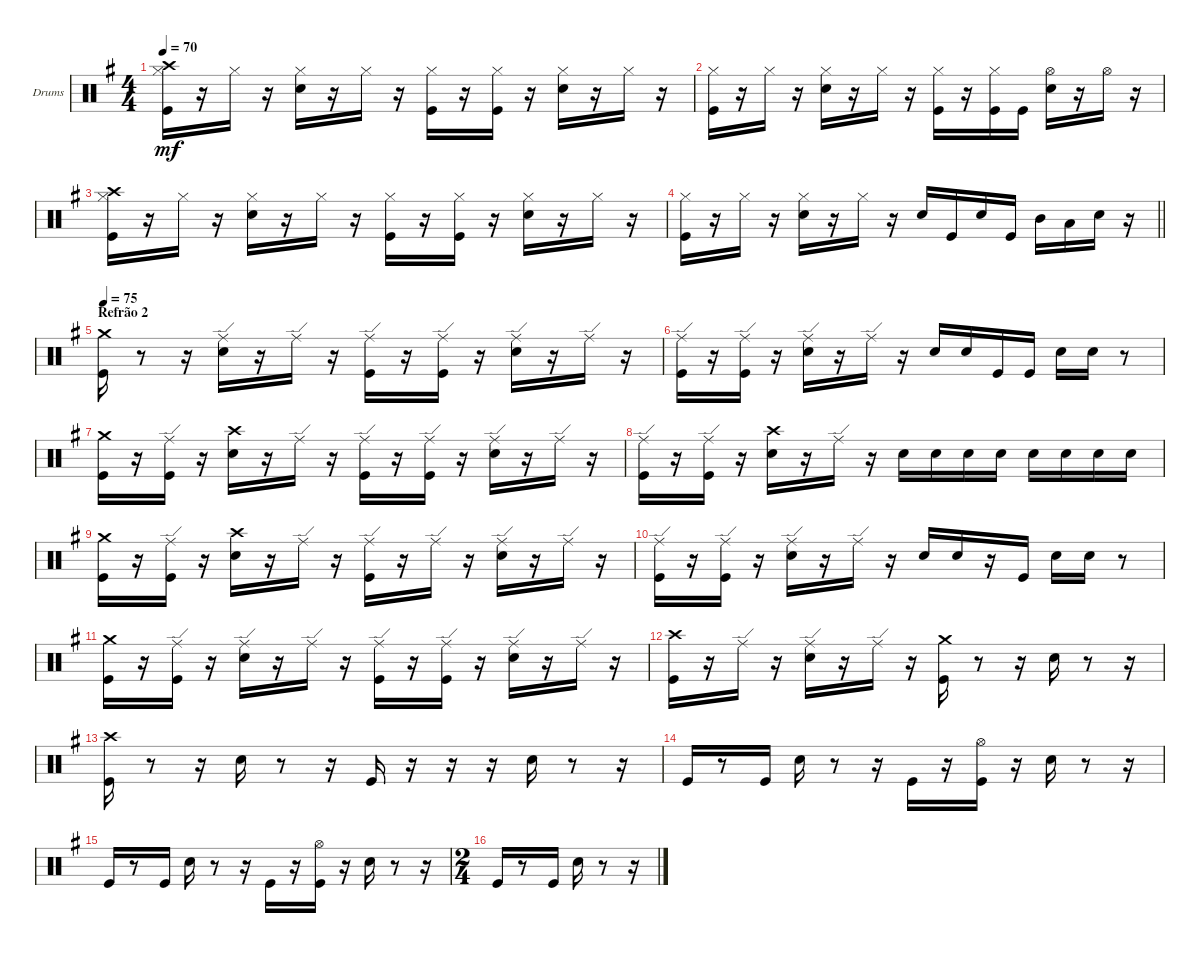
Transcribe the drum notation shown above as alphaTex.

\bracketExtendMode groupsimilarinstruments
\firstSystemTrackNameOrientation horizontal
\otherSystemsTrackNameOrientation horizontal
\track ("Drumkit" "Drums") {instrument percussion}
\staff {score}
\articulation defaults
\ts (4 4)
\tempo 70
\clef neutral
\ks eminor
("Kick (hit)" "Hi-Hat (closed)" "Crash high (hit)").16{dy mf} r.16 "Hi-Hat (closed)".16 r.16 ("Snare (hit) 2" "Hi-Hat (closed)").16 r.16 "Hi-Hat (closed)".16 r.16 ("Kick (hit)" "Hi-Hat (closed)").16 r.16 ("Kick (hit)" "Hi-Hat (closed)").16 r.16 ("Snare (hit) 2" "Hi-Hat (closed)").16 r.16 "Hi-Hat (closed)".16 r.16 |
("Kick (hit)" "Hi-Hat (closed)").16 r.16 "Hi-Hat (closed)".16 r.16 ("Snare (hit) 2" "Hi-Hat (closed)").16 r.16 "Hi-Hat (closed)".16 r.16 ("Kick (hit)" "Hi-Hat (closed)").16 r.16 ("Kick (hit)" "Hi-Hat (closed)").16 "Kick (hit)".16 ("Snare (hit) 2" "Hi-Hat (open)").16 r.16 "Hi-Hat (open)".16 r.16 |
("Kick (hit)" "Hi-Hat (closed)" "Crash high (hit)").16 r.16 "Hi-Hat (closed)".16 r.16 ("Snare (hit) 2" "Hi-Hat (closed)").16 r.16 "Hi-Hat (closed)".16 r.16 ("Kick (hit)" "Hi-Hat (closed)").16 r.16 ("Kick (hit)" "Hi-Hat (closed)").16 r.16 ("Snare (hit) 2" "Hi-Hat (closed)").16 r.16 "Hi-Hat (closed)".16 r.16 |
\barLineRight lightlight
("Kick (hit)" "Hi-Hat (closed)").16 r.16 "Hi-Hat (closed)".16 r.16 ("Snare (hit) 2" "Hi-Hat (closed)").16 r.16 "Hi-Hat (closed)".16 r.16 "Snare (hit) 2".16 "Kick (hit)".16 "Snare (hit) 2".16 "Kick (hit)".16 "Mid Tom (hit)".16 "Low Tom (hit)".16 "Snare (hit) 2".16 r.16 |
\section ("" "Refrão 2")
\tempo 75
("Kick (hit)" "Crash medium (hit)").16 r.8 r.16 ("Snare (hit) 2" "Ride (edge)").16 r.16 "Ride (edge)".16 r.16 ("Kick (hit)" "Ride (edge)").16 r.16 ("Kick (hit)" "Ride (edge)").16 r.16 ("Snare (hit) 2" "Ride (edge)").16 r.16 "Ride (edge)".16 r.16 |
("Kick (hit)" "Ride (edge)").16 r.16 ("Kick (hit)" "Ride (edge)").16 r.16 ("Snare (hit) 2" "Ride (edge)").16 r.16 "Ride (edge)".16 r.16 "Snare (hit) 2".16 "Snare (hit) 2".16 "Kick (hit)".16 "Kick (hit)".16 "Snare (hit) 2".16 "Snare (hit) 2".16 r.8 |
("Kick (hit)" "Crash medium (hit)").16 r.16 ("Kick (hit)" "Ride (edge)").16 r.16 ("Snare (hit) 2" "Crash high (hit)").16 r.16 "Ride (edge)".16 r.16 ("Kick (hit)" "Ride (edge)").16 r.16 ("Kick (hit)" "Ride (edge)").16 r.16 ("Snare (hit) 2" "Ride (edge)").16 r.16 "Ride (edge)".16 r.16 |
("Kick (hit)" "Ride (edge)").16 r.16 ("Kick (hit)" "Ride (edge)").16 r.16 ("Snare (hit) 2" "Crash high (hit)").16 r.16 "Ride (edge)".16 r.16 "Snare (hit) 2".16 "Snare (hit) 2".16 "Snare (hit) 2".16 "Snare (hit) 2".16 "Snare (hit) 2".16 "Snare (hit) 2".16 "Snare (hit) 2".16 "Snare (hit) 2".16 |
("Kick (hit)" "Crash medium (hit)").16 r.16 ("Kick (hit)" "Ride (edge)").16 r.16 ("Snare (hit) 2" "Crash high (hit)").16 r.16 "Ride (edge)".16 r.16 ("Kick (hit)" "Ride (edge)").16 r.16 "Ride (edge)".16 r.16 ("Snare (hit) 2" "Ride (edge)").16 r.16 "Ride (edge)".16 r.16 |
("Kick (hit)" "Ride (edge)").16 r.16 ("Kick (hit)" "Ride (edge)").16 r.16 ("Snare (hit) 2" "Ride (edge)").16 r.16 "Ride (edge)".16 r.16 "Snare (hit) 2".16 "Snare (hit) 2".16 r.16 "Kick (hit)".16 "Snare (hit) 2".16 "Snare (hit) 2".16 r.8 |
("Kick (hit)" "Crash medium (hit)").16 r.16 ("Kick (hit)" "Ride (edge)").16 r.16 ("Snare (hit) 2" "Ride (edge)").16 r.16 "Ride (edge)".16 r.16 ("Kick (hit)" "Ride (edge)").16 r.16 ("Kick (hit)" "Ride (edge)").16 r.16 ("Snare (hit) 2" "Ride (edge)").16 r.16 "Ride (edge)".16 r.16 |
("Kick (hit)" "Crash high (hit)").16 r.16 "Ride (edge)".16 r.16 ("Snare (hit) 2" "Ride (edge)").16 r.16 "Ride (edge)".16 r.16 ("Kick (hit)" "Crash medium (hit)").16 r.8 r.16 "Snare (hit) 2".16 r.8 r.16 |
("Kick (hit)" "Crash high (hit)").16 r.8 r.16 "Snare (hit) 2".16 r.8 r.16 "Kick (hit)".16 r.16 r.16 r.16 "Snare (hit) 2".16 r.8 r.16 |
"Kick (hit)".16 r.8 "Kick (hit)".16 "Snare (hit) 2".16 r.8 r.16 "Kick (hit)".16 r.16 ("Kick (hit)" "Hi-Hat (open)").16 r.16 "Snare (hit) 2".16 r.8 r.16 |
"Kick (hit)".16 r.8 "Kick (hit)".16 "Snare (hit) 2".16 r.8 r.16 "Kick (hit)".16 r.16 ("Kick (hit)" "Hi-Hat (open)").16 r.16 "Snare (hit) 2".16 r.8 r.16 |
\ts (2 4)
\beaming (8 2 2 2 2)
"Kick (hit)".16 r.8 "Kick (hit)".16 "Snare (hit) 2".16 r.8 r.16
